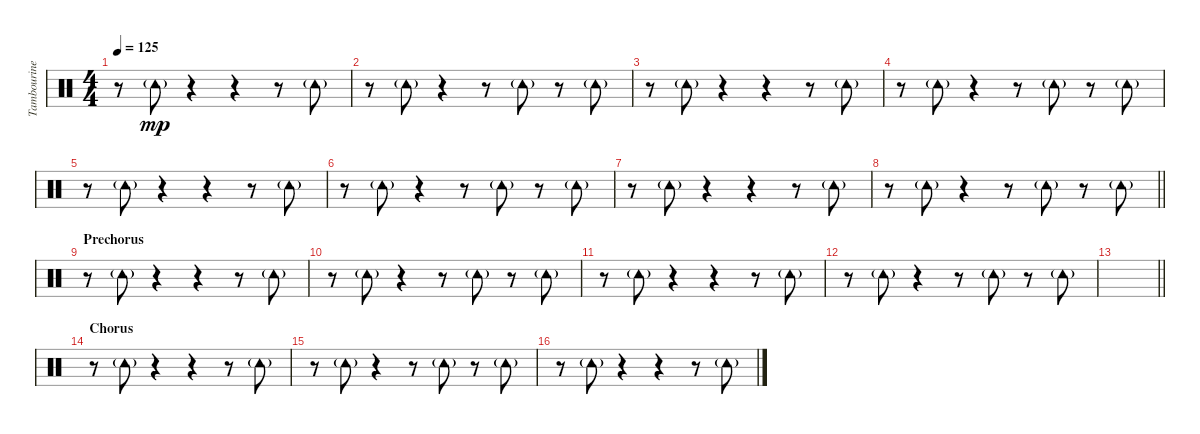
\track ("Tambourine" "Tambourine") {instrument percussion}
\staff {score}
\articulation defaults
\ts (4 4)
\tempo 125
\clef neutral
\ks c
r.8{dy mp} "Tambourine (hit)"{g}.8 r.4 r.4 r.8 "Tambourine (hit)"{g}.8 |
r.8 "Tambourine (hit)"{g}.8 r.4 r.8 "Tambourine (hit)"{g}.8 r.8 "Tambourine (hit)"{g}.8 |
r.8 "Tambourine (hit)"{g}.8 r.4 r.4 r.8 "Tambourine (hit)"{g}.8 |
r.8 "Tambourine (hit)"{g}.8 r.4 r.8 "Tambourine (hit)"{g}.8 r.8 "Tambourine (hit)"{g}.8 |
r.8 "Tambourine (hit)"{g}.8 r.4 r.4 r.8 "Tambourine (hit)"{g}.8 |
r.8 "Tambourine (hit)"{g}.8 r.4 r.8 "Tambourine (hit)"{g}.8 r.8 "Tambourine (hit)"{g}.8 |
r.8 "Tambourine (hit)"{g}.8 r.4 r.4 r.8 "Tambourine (hit)"{g}.8 |
\barLineRight lightlight
r.8 "Tambourine (hit)"{g}.8 r.4 r.8 "Tambourine (hit)"{g}.8 r.8 "Tambourine (hit)"{g}.8 |
\section ("" "Prechorus")
r.8 "Tambourine (hit)"{g}.8 r.4 r.4 r.8 "Tambourine (hit)"{g}.8 |
r.8 "Tambourine (hit)"{g}.8 r.4 r.8 "Tambourine (hit)"{g}.8 r.8 "Tambourine (hit)"{g}.8 |
r.8 "Tambourine (hit)"{g}.8 r.4 r.4 r.8 "Tambourine (hit)"{g}.8 |
r.8 "Tambourine (hit)"{g}.8 r.4 r.8 "Tambourine (hit)"{g}.8 r.8 "Tambourine (hit)"{g}.8 |
\barLineRight lightlight
|
\section ("" "Chorus")
r.8 "Tambourine (hit)"{g}.8 r.4 r.4 r.8 "Tambourine (hit)"{g}.8 |
r.8 "Tambourine (hit)"{g}.8 r.4 r.8 "Tambourine (hit)"{g}.8 r.8 "Tambourine (hit)"{g}.8 |
r.8 "Tambourine (hit)"{g}.8 r.4 r.4 r.8 "Tambourine (hit)"{g}.8
